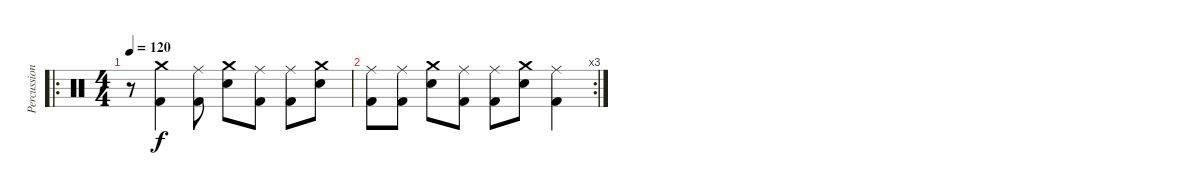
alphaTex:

\track ("Percussion" "Percussion") {instrument percussion}
\staff {score}
\articulation defaults
\ro
\ts (4 4)
\tempo 120
\clef neutral
\ks c
r.8{dy f} ("Crash medium (hit)" "Kick (hit) 2").4 ("Ride (middle)" "Kick (hit) 2").8 ("Crash medium (hit)" "Snare (hit) 2").8 ("Ride (middle)" "Kick (hit) 2").8 ("Ride (middle)" "Kick (hit) 2").8 ("Crash medium (hit)" "Snare (hit) 2").8 |
\rc 3
("Ride (middle)" "Kick (hit) 2").8 ("Ride (middle)" "Kick (hit) 2").8 ("Crash medium (hit)" "Snare (hit) 2").8 ("Ride (middle)" "Kick (hit) 2").8 ("Ride (middle)" "Kick (hit) 2").8 ("Crash medium (hit)" "Snare (hit) 2").8 ("Ride (middle)" "Kick (hit) 2").4
